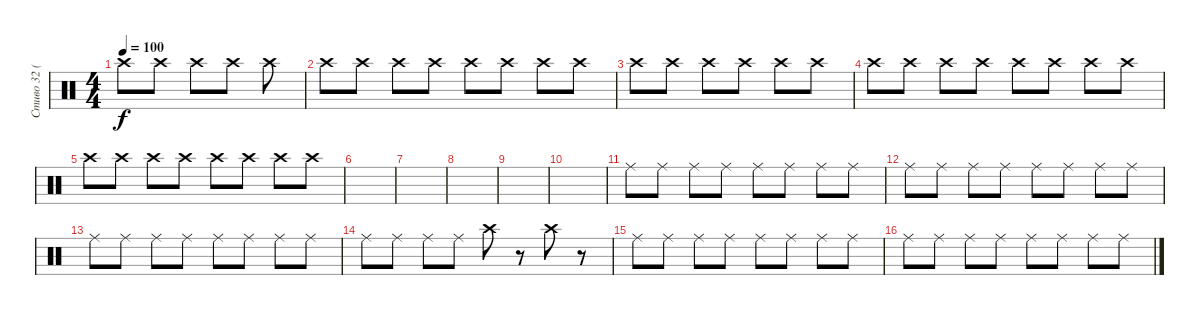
\track ("Стиво 32 (Тарелки)" "Стиво 32 (") {instrument percussion}
\staff {score}
\articulation defaults
\ts (4 4)
\tempo 100
\clef neutral
\ks c "Crash high (hit)".8{dy f} "Crash high (hit)".8 "Crash high (hit)".8 "Crash high (hit)".8 "Crash high (hit)".8
|
"Crash high (hit)".8 "Crash high (hit)".8 "Crash high (hit)".8 "Crash high (hit)".8 "Crash high (hit)".8 "Crash high (hit)".8 "Crash high (hit)".8 "Crash high (hit)".8 |
"Crash high (hit)".8 "Crash high (hit)".8 "Crash high (hit)".8 "Crash high (hit)".8 "Crash high (hit)".8 "Crash high (hit)".8 |
"Crash high (hit)".8 "Crash high (hit)".8 "Crash high (hit)".8 "Crash high (hit)".8 "Crash high (hit)".8 "Crash high (hit)".8 "Crash high (hit)".8 "Crash high (hit)".8 |
"Crash high (hit)".8 "Crash high (hit)".8 "Crash high (hit)".8 "Crash high (hit)".8 "Crash high (hit)".8 "Crash high (hit)".8 "Crash high (hit)".8 "Crash high (hit)".8 |
|
|
|
|
|
"Ride (middle)".8 "Ride (middle)".8 "Ride (middle)".8 "Ride (middle)".8 "Ride (middle)".8 "Ride (middle)".8 "Ride (middle)".8 "Ride (middle)".8 |
"Ride (middle)".8 "Ride (middle)".8 "Ride (middle)".8 "Ride (middle)".8 "Ride (middle)".8 "Ride (middle)".8 "Ride (middle)".8 "Ride (middle)".8 |
"Ride (middle)".8 "Ride (middle)".8 "Ride (middle)".8 "Ride (middle)".8 "Ride (middle)".8 "Ride (middle)".8 "Ride (middle)".8 "Ride (middle)".8 |
"Ride (middle)".8 "Ride (middle)".8 "Ride (middle)".8 "Ride (middle)".8 "Crash high (hit)".8 r.8 "Crash high (hit)".8 r.8 |
"Ride (middle)".8 "Ride (middle)".8 "Ride (middle)".8 "Ride (middle)".8 "Ride (middle)".8 "Ride (middle)".8 "Ride (middle)".8 "Ride (middle)".8 |
"Ride (middle)".8 "Ride (middle)".8 "Ride (middle)".8 "Ride (middle)".8 "Ride (middle)".8 "Ride (middle)".8 "Ride (middle)".8 "Ride (middle)".8
